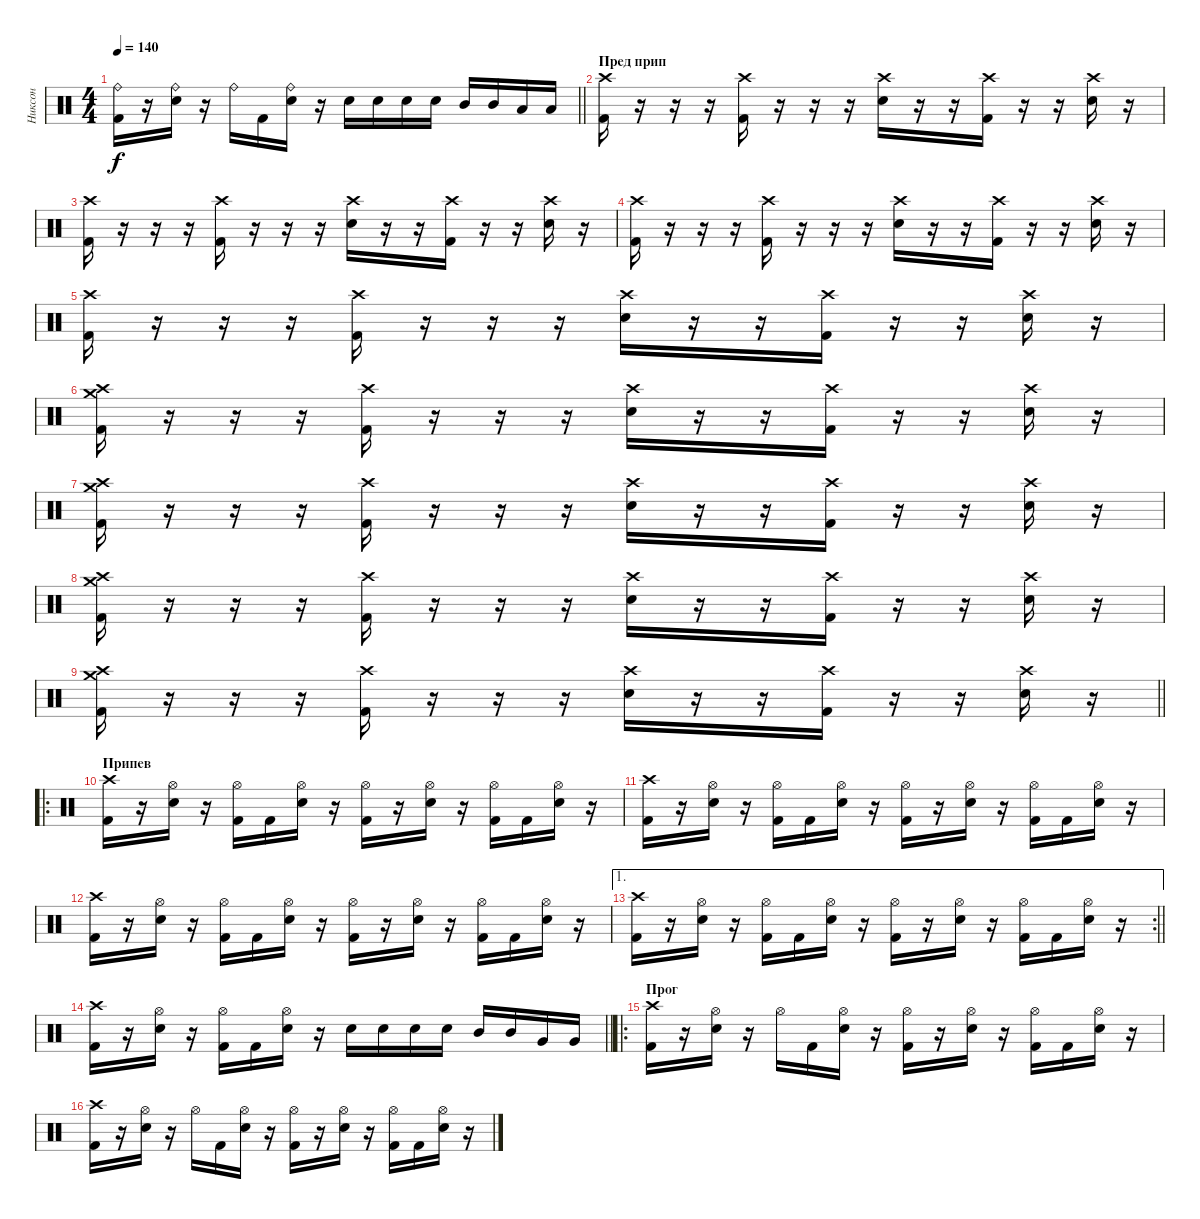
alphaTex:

\track ("Никсон" "Никсон") {instrument percussion}
\staff {score}
\articulation defaults
\ts (4 4)
\tempo 140
\clef neutral
\barLineRight lightlight
\ks c
("Ride (bell)" "Kick (hit) 2").16{dy f} r.16 ("Ride (bell)" "Snare (hit) 2").16 r.16 "Ride (bell)".16 "Kick (hit) 2".16 ("Ride (bell)" "Snare (hit) 2").16 r.16 "Snare (hit) 2".16 "Snare (hit) 2".16 "Snare (hit) 2".16 "Snare (hit) 2".16 "Mid Tom (hit)".16 "Mid Tom (hit)".16 "Low Tom (hit)".16 "Low Tom (hit)".16 |
\section ("" "Пред прип")
("Crash high (hit)" "Kick (hit) 2").16 r.16 r.16 r.16 ("Crash high (hit)" "Kick (hit) 2").16 r.16 r.16 r.16 ("Crash high (hit)" "Snare (hit) 2").16 r.16 r.16 ("Crash high (hit)" "Kick (hit) 2").16 r.16 r.16 ("Crash high (hit)" "Snare (hit) 2").16 r.16 |
("Crash high (hit)" "Kick (hit) 2").16 r.16 r.16 r.16 ("Crash high (hit)" "Kick (hit) 2").16 r.16 r.16 r.16 ("Crash high (hit)" "Snare (hit) 2").16 r.16 r.16 ("Crash high (hit)" "Kick (hit) 2").16 r.16 r.16 ("Crash high (hit)" "Snare (hit) 2").16 r.16 |
("Crash high (hit)" "Kick (hit) 2").16 r.16 r.16 r.16 ("Crash high (hit)" "Kick (hit) 2").16 r.16 r.16 r.16 ("Crash high (hit)" "Snare (hit) 2").16 r.16 r.16 ("Crash high (hit)" "Kick (hit) 2").16 r.16 r.16 ("Crash high (hit)" "Snare (hit) 2").16 r.16 |
("Crash high (hit)" "Kick (hit) 2").16 r.16 r.16 r.16 ("Crash high (hit)" "Kick (hit) 2").16 r.16 r.16 r.16 ("Crash high (hit)" "Snare (hit) 2").16 r.16 r.16 ("Crash high (hit)" "Kick (hit) 2").16 r.16 r.16 ("Crash high (hit)" "Snare (hit) 2").16 r.16 |
("Crash high (hit)" "Crash medium (hit)" "Kick (hit) 2").16 r.16 r.16 r.16 ("Crash high (hit)" "Kick (hit) 2").16 r.16 r.16 r.16 ("Crash high (hit)" "Snare (hit) 2").16 r.16 r.16 ("Crash high (hit)" "Kick (hit) 2").16 r.16 r.16 ("Crash high (hit)" "Snare (hit) 2").16 r.16 |
("Crash high (hit)" "Crash medium (hit)" "Kick (hit) 2").16 r.16 r.16 r.16 ("Crash high (hit)" "Kick (hit) 2").16 r.16 r.16 r.16 ("Crash high (hit)" "Snare (hit) 2").16 r.16 r.16 ("Crash high (hit)" "Kick (hit) 2").16 r.16 r.16 ("Crash high (hit)" "Snare (hit) 2").16 r.16 |
("Crash high (hit)" "Crash medium (hit)" "Kick (hit) 2").16 r.16 r.16 r.16 ("Crash high (hit)" "Kick (hit) 2").16 r.16 r.16 r.16 ("Crash high (hit)" "Snare (hit) 2").16 r.16 r.16 ("Crash high (hit)" "Kick (hit) 2").16 r.16 r.16 ("Crash high (hit)" "Snare (hit) 2").16 r.16 |
\barLineRight lightlight
("Crash high (hit)" "Crash medium (hit)" "Kick (hit) 2").16 r.16 r.16 r.16 ("Crash high (hit)" "Kick (hit) 2").16 r.16 r.16 r.16 ("Crash high (hit)" "Snare (hit) 2").16 r.16 r.16 ("Crash high (hit)" "Kick (hit) 2").16 r.16 r.16 ("Crash high (hit)" "Snare (hit) 2").16 r.16 |
\ro
\section ("" "Припев")
("Crash high (hit)" "Kick (hit) 2").16 r.16 ("Hi-Hat (open)" "Snare (hit) 2").16 r.16 ("Hi-Hat (open)" "Kick (hit) 2").16 "Kick (hit) 2".16 ("Hi-Hat (open)" "Snare (hit) 2").16 r.16 ("Hi-Hat (open)" "Kick (hit) 2").16 r.16 ("Hi-Hat (open)" "Snare (hit) 2").16 r.16 ("Hi-Hat (open)" "Kick (hit) 2").16 "Kick (hit) 2".16 ("Hi-Hat (open)" "Snare (hit) 2").16 r.16 |
("Crash high (hit)" "Kick (hit) 2").16 r.16 ("Hi-Hat (open)" "Snare (hit) 2").16 r.16 ("Hi-Hat (open)" "Kick (hit) 2").16 "Kick (hit) 2".16 ("Hi-Hat (open)" "Snare (hit) 2").16 r.16 ("Hi-Hat (open)" "Kick (hit) 2").16 r.16 ("Hi-Hat (open)" "Snare (hit) 2").16 r.16 ("Hi-Hat (open)" "Kick (hit) 2").16 "Kick (hit) 2".16 ("Hi-Hat (open)" "Snare (hit) 2").16 r.16 |
("Crash high (hit)" "Kick (hit) 2").16 r.16 ("Hi-Hat (open)" "Snare (hit) 2").16 r.16 ("Hi-Hat (open)" "Kick (hit) 2").16 "Kick (hit) 2".16 ("Hi-Hat (open)" "Snare (hit) 2").16 r.16 ("Hi-Hat (open)" "Kick (hit) 2").16 r.16 ("Hi-Hat (open)" "Snare (hit) 2").16 r.16 ("Hi-Hat (open)" "Kick (hit) 2").16 "Kick (hit) 2".16 ("Hi-Hat (open)" "Snare (hit) 2").16 r.16 |
\ae 1
\rc 2
\barLineRight lightlight
("Crash high (hit)" "Kick (hit) 2").16 r.16 ("Hi-Hat (open)" "Snare (hit) 2").16 r.16 ("Hi-Hat (open)" "Kick (hit) 2").16 "Kick (hit) 2".16 ("Hi-Hat (open)" "Snare (hit) 2").16 r.16 ("Hi-Hat (open)" "Kick (hit) 2").16 r.16 ("Hi-Hat (open)" "Snare (hit) 2").16 r.16 ("Hi-Hat (open)" "Kick (hit) 2").16 "Kick (hit) 2".16 ("Hi-Hat (open)" "Snare (hit) 2").16 r.16 |
\barLineRight lightlight
("Crash high (hit)" "Kick (hit) 2").16 r.16 ("Hi-Hat (open)" "Snare (hit) 2").16 r.16 ("Hi-Hat (open)" "Kick (hit) 2").16 "Kick (hit) 2".16 ("Hi-Hat (open)" "Snare (hit) 2").16 r.16 "Snare (hit) 2".16 "Snare (hit) 2".16 "Snare (hit) 2".16 "Snare (hit) 2".16 "Mid Tom (hit)".16 "Mid Tom (hit)".16 "Very Low Tom (hit)".16 "Very Low Tom (hit)".16 |
\ro
\section ("" "Прог")
("Crash high (hit)" "Kick (hit) 2").16 r.16 ("Hi-Hat (open)" "Snare (hit) 2").16 r.16 "Hi-Hat (open)".16 "Kick (hit) 2".16 ("Hi-Hat (open)" "Snare (hit) 2").16 r.16 ("Hi-Hat (open)" "Kick (hit) 2").16 r.16 ("Hi-Hat (open)" "Snare (hit) 2").16 r.16 ("Hi-Hat (open)" "Kick (hit) 2").16 "Kick (hit) 2".16 ("Hi-Hat (open)" "Snare (hit) 2").16 r.16 |
("Crash high (hit)" "Kick (hit) 2").16 r.16 ("Hi-Hat (open)" "Snare (hit) 2").16 r.16 "Hi-Hat (open)".16 "Kick (hit) 2".16 ("Hi-Hat (open)" "Snare (hit) 2").16 r.16 ("Hi-Hat (open)" "Kick (hit) 2").16 r.16 ("Hi-Hat (open)" "Snare (hit) 2").16 r.16 ("Hi-Hat (open)" "Kick (hit) 2").16 "Kick (hit) 2".16 ("Hi-Hat (open)" "Snare (hit) 2").16 r.16
